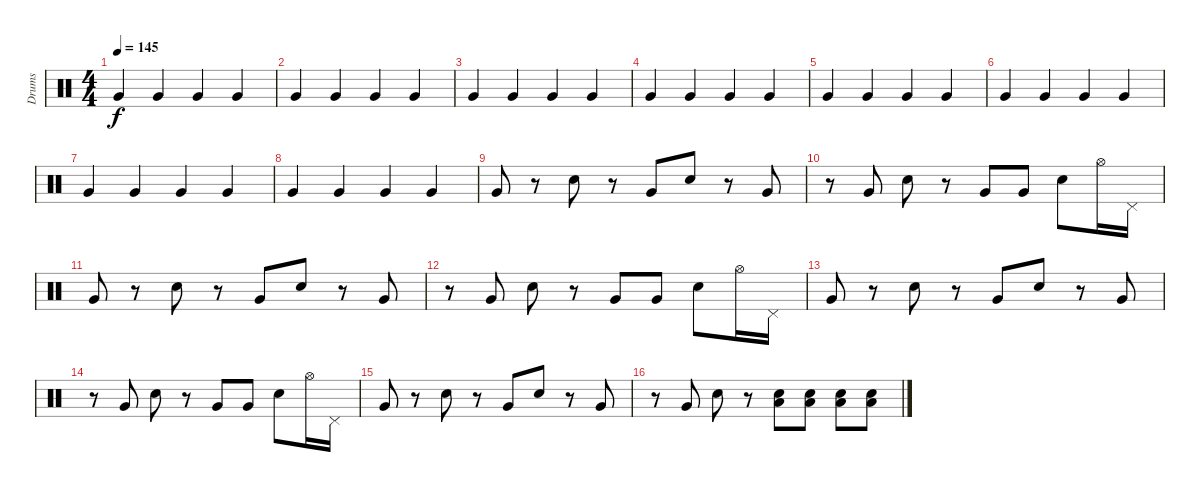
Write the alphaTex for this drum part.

\track ("Drums" "Drums") {instrument percussion}
\staff {score}
\articulation defaults
\ts (4 4)
\tempo 145
\clef neutral
\ks c "Very Low Tom (hit)".4{dy f} "Very Low Tom (hit)".4 "Very Low Tom (hit)".4 "Very Low Tom (hit)".4
|
"Very Low Tom (hit)".4 "Very Low Tom (hit)".4 "Very Low Tom (hit)".4 "Very Low Tom (hit)".4 |
"Very Low Tom (hit)".4 "Very Low Tom (hit)".4 "Very Low Tom (hit)".4 "Very Low Tom (hit)".4 |
"Very Low Tom (hit)".4 "Very Low Tom (hit)".4 "Very Low Tom (hit)".4 "Very Low Tom (hit)".4 |
"Very Low Tom (hit)".4 "Very Low Tom (hit)".4 "Very Low Tom (hit)".4 "Very Low Tom (hit)".4 |
"Very Low Tom (hit)".4 "Very Low Tom (hit)".4 "Very Low Tom (hit)".4 "Very Low Tom (hit)".4 |
"Very Low Tom (hit)".4 "Very Low Tom (hit)".4 "Very Low Tom (hit)".4 "Very Low Tom (hit)".4 |
"Very Low Tom (hit)".4 "Very Low Tom (hit)".4 "Very Low Tom (hit)".4 "Very Low Tom (hit)".4 |
"Very Low Tom (hit)".8 r.8 "Electric Snare (hit)".8 r.8 "Very Low Tom (hit)".8 "Electric Snare (hit)".8 r.8 "Very Low Tom (hit)".8 |
r.8 "Very Low Tom (hit)".8 "Electric Snare (hit)".8 r.8 "Very Low Tom (hit)".8 "Very Low Tom (hit)".8 "Electric Snare (hit)".8 "Hi-Hat (open)".16 "Pedal Hi-Hat (hit)".16 |
"Very Low Tom (hit)".8 r.8 "Electric Snare (hit)".8 r.8 "Very Low Tom (hit)".8 "Electric Snare (hit)".8 r.8 "Very Low Tom (hit)".8 |
r.8 "Very Low Tom (hit)".8 "Electric Snare (hit)".8 r.8 "Very Low Tom (hit)".8 "Very Low Tom (hit)".8 "Electric Snare (hit)".8 "Hi-Hat (open)".16 "Pedal Hi-Hat (hit)".16 |
"Very Low Tom (hit)".8 r.8 "Electric Snare (hit)".8 r.8 "Very Low Tom (hit)".8 "Electric Snare (hit)".8 r.8 "Very Low Tom (hit)".8 |
r.8 "Very Low Tom (hit)".8 "Electric Snare (hit)".8 r.8 "Very Low Tom (hit)".8 "Very Low Tom (hit)".8 "Electric Snare (hit)".8 "Hi-Hat (open)".16 "Pedal Hi-Hat (hit)".16 |
"Very Low Tom (hit)".8 r.8 "Electric Snare (hit)".8 r.8 "Very Low Tom (hit)".8 "Electric Snare (hit)".8 r.8 "Very Low Tom (hit)".8 |
r.8 "Very Low Tom (hit)".8 "Electric Snare (hit)".8 r.8 ("Low Tom (hit)" "Electric Snare (hit)").8 ("Low Tom (hit)" "Electric Snare (hit)").8 ("Low Tom (hit)" "Electric Snare (hit)").8 ("Low Tom (hit)" "Electric Snare (hit)").8
